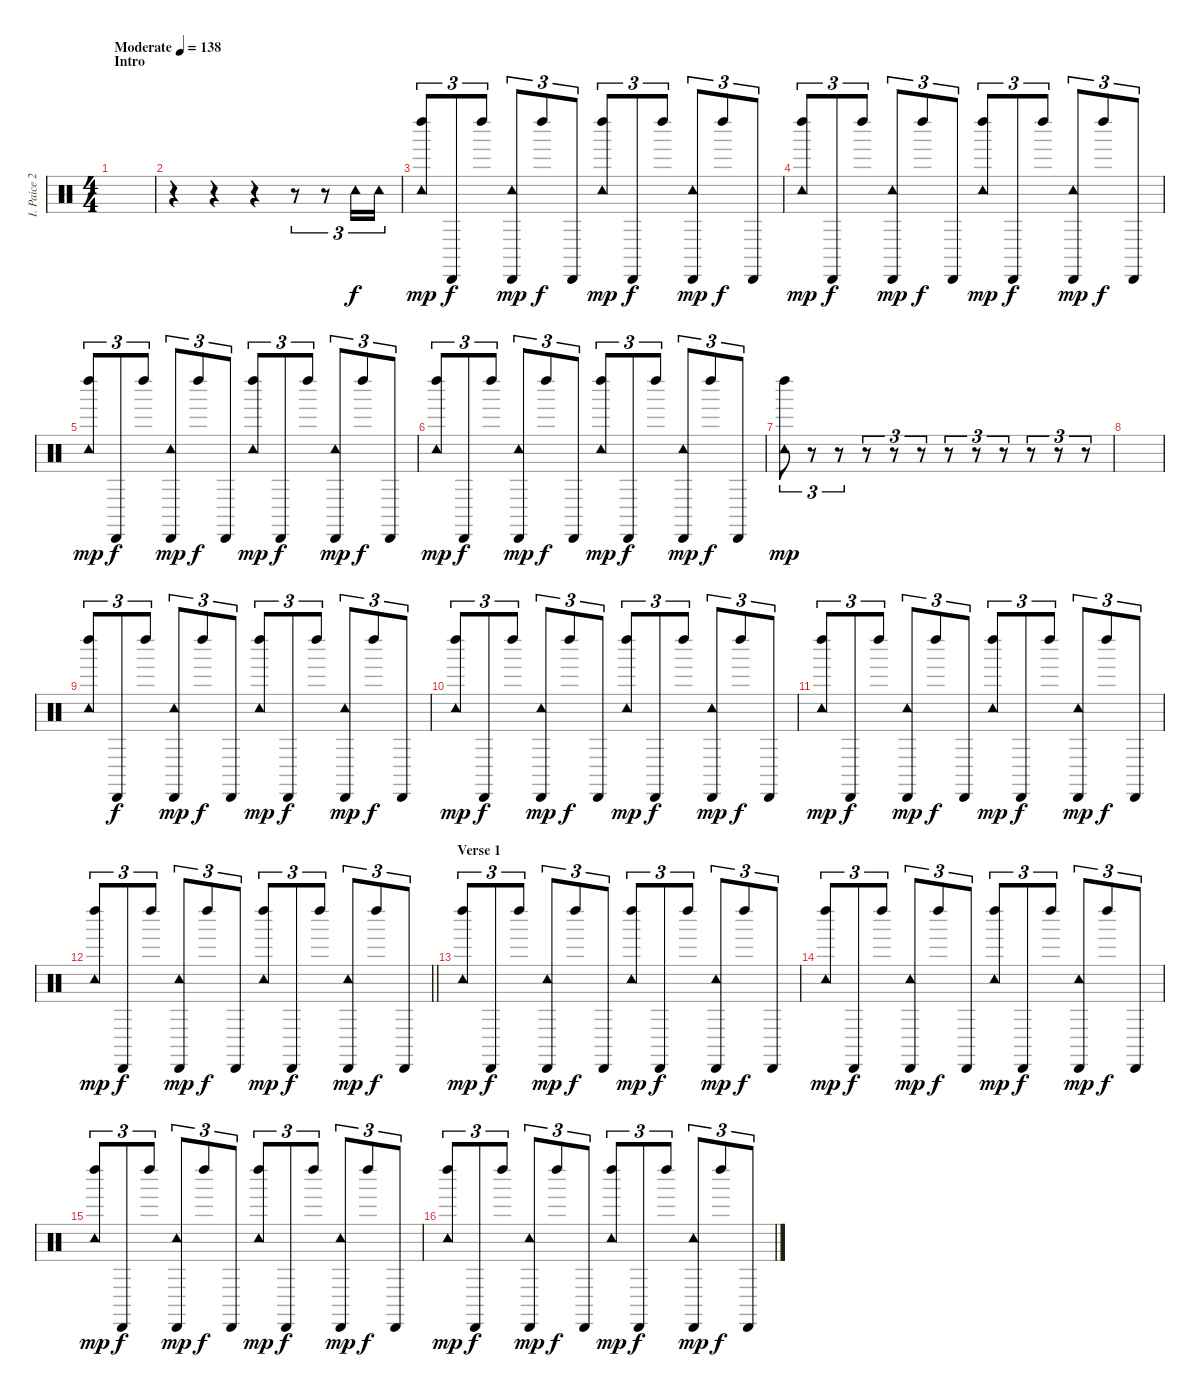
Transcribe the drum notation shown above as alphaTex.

\track ("I. Paice 2" "I. Paice 2") {instrument percussion}
\staff {score}
\articulation defaults
\ts (4 4)
\section ("" "Intro")
\tempo (138 "Moderate")
\clef neutral
\ks c
|
r.4 r.4 r.4 r.8{tu (3 2)} r.8{tu (3 2)} "Tambourine (hit)".16{tu (3 2)} "Tambourine (hit)".16{tu (3 2)} |
("Tambourine (hit)" "Left Maraca (hit)").8{tu (3 2) dy mp} "Cabasa (hit)".8{tu (3 2) dy f} "Left Maraca (hit)".8{tu (3 2)} ("Tambourine (hit)" "Cabasa (hit)").8{tu (3 2) dy mp} "Left Maraca (hit)".8{tu (3 2) dy f} "Cabasa (hit)".8{tu (3 2)} ("Tambourine (hit)" "Left Maraca (hit)").8{tu (3 2) dy mp} "Cabasa (hit)".8{tu (3 2) dy f} "Left Maraca (hit)".8{tu (3 2)} ("Tambourine (hit)" "Cabasa (hit)").8{tu (3 2) dy mp} "Left Maraca (hit)".8{tu (3 2) dy f} "Cabasa (hit)".8{tu (3 2)} |
("Tambourine (hit)" "Left Maraca (hit)").8{tu (3 2) dy mp} "Cabasa (hit)".8{tu (3 2) dy f} "Left Maraca (hit)".8{tu (3 2)} ("Tambourine (hit)" "Cabasa (hit)").8{tu (3 2) dy mp} "Left Maraca (hit)".8{tu (3 2) dy f} "Cabasa (hit)".8{tu (3 2)} ("Tambourine (hit)" "Left Maraca (hit)").8{tu (3 2) dy mp} "Cabasa (hit)".8{tu (3 2) dy f} "Left Maraca (hit)".8{tu (3 2)} ("Tambourine (hit)" "Cabasa (hit)").8{tu (3 2) dy mp} "Left Maraca (hit)".8{tu (3 2) dy f} "Cabasa (hit)".8{tu (3 2)} |
("Tambourine (hit)" "Left Maraca (hit)").8{tu (3 2) dy mp} "Cabasa (hit)".8{tu (3 2) dy f} "Left Maraca (hit)".8{tu (3 2)} ("Tambourine (hit)" "Cabasa (hit)").8{tu (3 2) dy mp} "Left Maraca (hit)".8{tu (3 2) dy f} "Cabasa (hit)".8{tu (3 2)} ("Tambourine (hit)" "Left Maraca (hit)").8{tu (3 2) dy mp} "Cabasa (hit)".8{tu (3 2) dy f} "Left Maraca (hit)".8{tu (3 2)} ("Tambourine (hit)" "Cabasa (hit)").8{tu (3 2) dy mp} "Left Maraca (hit)".8{tu (3 2) dy f} "Cabasa (hit)".8{tu (3 2)} |
("Tambourine (hit)" "Left Maraca (hit)").8{tu (3 2) dy mp} "Cabasa (hit)".8{tu (3 2) dy f} "Left Maraca (hit)".8{tu (3 2)} ("Tambourine (hit)" "Cabasa (hit)").8{tu (3 2) dy mp} "Left Maraca (hit)".8{tu (3 2) dy f} "Cabasa (hit)".8{tu (3 2)} ("Tambourine (hit)" "Left Maraca (hit)").8{tu (3 2) dy mp} "Cabasa (hit)".8{tu (3 2) dy f} "Left Maraca (hit)".8{tu (3 2)} ("Tambourine (hit)" "Cabasa (hit)").8{tu (3 2) dy mp} "Left Maraca (hit)".8{tu (3 2) dy f} "Cabasa (hit)".8{tu (3 2)} |
("Tambourine (hit)" "Left Maraca (hit)").8{tu (3 2) dy mp} r.8{tu (3 2)} r.8{tu (3 2)} r.8{tu (3 2)} r.8{tu (3 2)} r.8{tu (3 2)} r.8{tu (3 2)} r.8{tu (3 2)} r.8{tu (3 2)} r.8{tu (3 2)} r.8{tu (3 2)} r.8{tu (3 2)} |
|
("Tambourine (hit)" "Left Maraca (hit)").8{tu (3 2)} "Cabasa (hit)".8{tu (3 2) dy f} "Left Maraca (hit)".8{tu (3 2)} ("Tambourine (hit)" "Cabasa (hit)").8{tu (3 2) dy mp} "Left Maraca (hit)".8{tu (3 2) dy f} "Cabasa (hit)".8{tu (3 2)} ("Tambourine (hit)" "Left Maraca (hit)").8{tu (3 2) dy mp} "Cabasa (hit)".8{tu (3 2) dy f} "Left Maraca (hit)".8{tu (3 2)} ("Tambourine (hit)" "Cabasa (hit)").8{tu (3 2) dy mp} "Left Maraca (hit)".8{tu (3 2) dy f} "Cabasa (hit)".8{tu (3 2)} |
("Tambourine (hit)" "Left Maraca (hit)").8{tu (3 2) dy mp} "Cabasa (hit)".8{tu (3 2) dy f} "Left Maraca (hit)".8{tu (3 2)} ("Tambourine (hit)" "Cabasa (hit)").8{tu (3 2) dy mp} "Left Maraca (hit)".8{tu (3 2) dy f} "Cabasa (hit)".8{tu (3 2)} ("Tambourine (hit)" "Left Maraca (hit)").8{tu (3 2) dy mp} "Cabasa (hit)".8{tu (3 2) dy f} "Left Maraca (hit)".8{tu (3 2)} ("Tambourine (hit)" "Cabasa (hit)").8{tu (3 2) dy mp} "Left Maraca (hit)".8{tu (3 2) dy f} "Cabasa (hit)".8{tu (3 2)} |
("Tambourine (hit)" "Left Maraca (hit)").8{tu (3 2) dy mp} "Cabasa (hit)".8{tu (3 2) dy f} "Left Maraca (hit)".8{tu (3 2)} ("Tambourine (hit)" "Cabasa (hit)").8{tu (3 2) dy mp} "Left Maraca (hit)".8{tu (3 2) dy f} "Cabasa (hit)".8{tu (3 2)} ("Tambourine (hit)" "Left Maraca (hit)").8{tu (3 2) dy mp} "Cabasa (hit)".8{tu (3 2) dy f} "Left Maraca (hit)".8{tu (3 2)} ("Tambourine (hit)" "Cabasa (hit)").8{tu (3 2) dy mp} "Left Maraca (hit)".8{tu (3 2) dy f} "Cabasa (hit)".8{tu (3 2)} |
\barLineRight lightlight
("Tambourine (hit)" "Left Maraca (hit)").8{tu (3 2) dy mp} "Cabasa (hit)".8{tu (3 2) dy f} "Left Maraca (hit)".8{tu (3 2)} ("Tambourine (hit)" "Cabasa (hit)").8{tu (3 2) dy mp} "Left Maraca (hit)".8{tu (3 2) dy f} "Cabasa (hit)".8{tu (3 2)} ("Tambourine (hit)" "Left Maraca (hit)").8{tu (3 2) dy mp} "Cabasa (hit)".8{tu (3 2) dy f} "Left Maraca (hit)".8{tu (3 2)} ("Tambourine (hit)" "Cabasa (hit)").8{tu (3 2) dy mp} "Left Maraca (hit)".8{tu (3 2) dy f} "Cabasa (hit)".8{tu (3 2)} |
\section ("" "Verse 1")
("Tambourine (hit)" "Left Maraca (hit)").8{tu (3 2) dy mp} "Cabasa (hit)".8{tu (3 2) dy f} "Left Maraca (hit)".8{tu (3 2)} ("Tambourine (hit)" "Cabasa (hit)").8{tu (3 2) dy mp} "Left Maraca (hit)".8{tu (3 2) dy f} "Cabasa (hit)".8{tu (3 2)} ("Tambourine (hit)" "Left Maraca (hit)").8{tu (3 2) dy mp} "Cabasa (hit)".8{tu (3 2) dy f} "Left Maraca (hit)".8{tu (3 2)} ("Tambourine (hit)" "Cabasa (hit)").8{tu (3 2) dy mp} "Left Maraca (hit)".8{tu (3 2) dy f} "Cabasa (hit)".8{tu (3 2)} |
("Tambourine (hit)" "Left Maraca (hit)").8{tu (3 2) dy mp} "Cabasa (hit)".8{tu (3 2) dy f} "Left Maraca (hit)".8{tu (3 2)} ("Tambourine (hit)" "Cabasa (hit)").8{tu (3 2) dy mp} "Left Maraca (hit)".8{tu (3 2) dy f} "Cabasa (hit)".8{tu (3 2)} ("Tambourine (hit)" "Left Maraca (hit)").8{tu (3 2) dy mp} "Cabasa (hit)".8{tu (3 2) dy f} "Left Maraca (hit)".8{tu (3 2)} ("Tambourine (hit)" "Cabasa (hit)").8{tu (3 2) dy mp} "Left Maraca (hit)".8{tu (3 2) dy f} "Cabasa (hit)".8{tu (3 2)} |
("Tambourine (hit)" "Left Maraca (hit)").8{tu (3 2) dy mp} "Cabasa (hit)".8{tu (3 2) dy f} "Left Maraca (hit)".8{tu (3 2)} ("Tambourine (hit)" "Cabasa (hit)").8{tu (3 2) dy mp} "Left Maraca (hit)".8{tu (3 2) dy f} "Cabasa (hit)".8{tu (3 2)} ("Tambourine (hit)" "Left Maraca (hit)").8{tu (3 2) dy mp} "Cabasa (hit)".8{tu (3 2) dy f} "Left Maraca (hit)".8{tu (3 2)} ("Tambourine (hit)" "Cabasa (hit)").8{tu (3 2) dy mp} "Left Maraca (hit)".8{tu (3 2) dy f} "Cabasa (hit)".8{tu (3 2)} |
("Tambourine (hit)" "Left Maraca (hit)").8{tu (3 2) dy mp} "Cabasa (hit)".8{tu (3 2) dy f} "Left Maraca (hit)".8{tu (3 2)} ("Tambourine (hit)" "Cabasa (hit)").8{tu (3 2) dy mp} "Left Maraca (hit)".8{tu (3 2) dy f} "Cabasa (hit)".8{tu (3 2)} ("Tambourine (hit)" "Left Maraca (hit)").8{tu (3 2) dy mp} "Cabasa (hit)".8{tu (3 2) dy f} "Left Maraca (hit)".8{tu (3 2)} ("Tambourine (hit)" "Cabasa (hit)").8{tu (3 2) dy mp} "Left Maraca (hit)".8{tu (3 2) dy f} "Cabasa (hit)".8{tu (3 2)}
